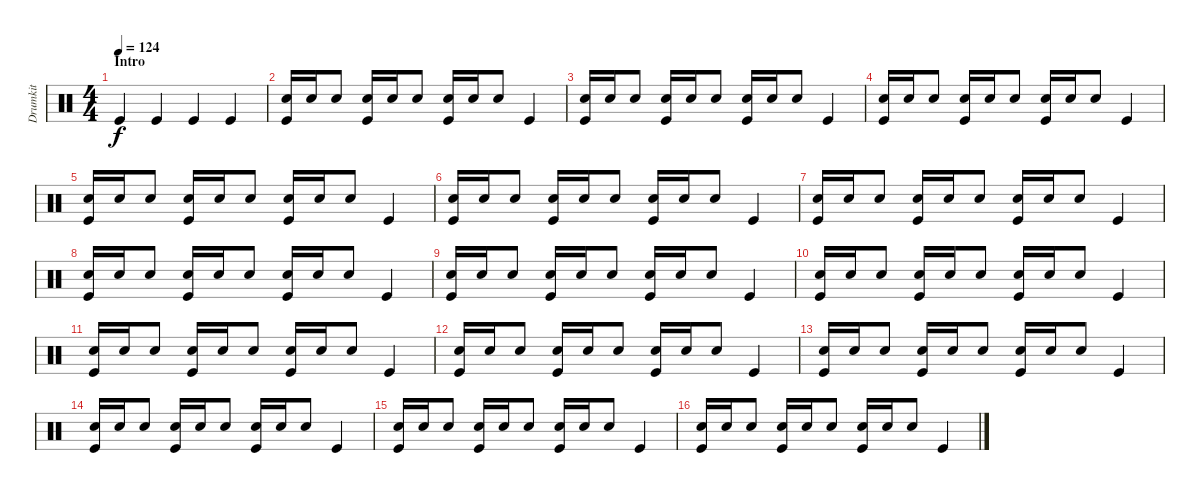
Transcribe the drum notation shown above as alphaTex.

\track ("Drumkit" "Drumkit") {instrument percussion}
\staff {score}
\articulation defaults
\ts (4 4)
\section ("" "Intro")
\tempo 124
\clef neutral
\ks c "Kick (hit)".4{dy f} "Kick (hit)".4 "Kick (hit)".4 "Kick (hit)".4
|
("Kick (hit)" "Snare (hit) 2").16 "Snare (hit) 2".16 "Snare (hit) 2".8 ("Kick (hit)" "Snare (hit) 2").16 "Snare (hit) 2".16 "Snare (hit) 2".8 ("Kick (hit)" "Snare (hit) 2").16 "Snare (hit) 2".16 "Snare (hit) 2".8 "Kick (hit)".4 |
("Kick (hit)" "Snare (hit) 2").16 "Snare (hit) 2".16 "Snare (hit) 2".8 ("Kick (hit)" "Snare (hit) 2").16 "Snare (hit) 2".16 "Snare (hit) 2".8 ("Kick (hit)" "Snare (hit) 2").16 "Snare (hit) 2".16 "Snare (hit) 2".8 "Kick (hit)".4 |
("Kick (hit)" "Snare (hit) 2").16 "Snare (hit) 2".16 "Snare (hit) 2".8 ("Kick (hit)" "Snare (hit) 2").16 "Snare (hit) 2".16 "Snare (hit) 2".8 ("Kick (hit)" "Snare (hit) 2").16 "Snare (hit) 2".16 "Snare (hit) 2".8 "Kick (hit)".4 |
("Kick (hit)" "Snare (hit) 2").16 "Snare (hit) 2".16 "Snare (hit) 2".8 ("Kick (hit)" "Snare (hit) 2").16 "Snare (hit) 2".16 "Snare (hit) 2".8 ("Kick (hit)" "Snare (hit) 2").16 "Snare (hit) 2".16 "Snare (hit) 2".8 "Kick (hit)".4 |
("Kick (hit)" "Snare (hit) 2").16 "Snare (hit) 2".16 "Snare (hit) 2".8 ("Kick (hit)" "Snare (hit) 2").16 "Snare (hit) 2".16 "Snare (hit) 2".8 ("Kick (hit)" "Snare (hit) 2").16 "Snare (hit) 2".16 "Snare (hit) 2".8 "Kick (hit)".4 |
("Kick (hit)" "Snare (hit) 2").16 "Snare (hit) 2".16 "Snare (hit) 2".8 ("Kick (hit)" "Snare (hit) 2").16 "Snare (hit) 2".16 "Snare (hit) 2".8 ("Kick (hit)" "Snare (hit) 2").16 "Snare (hit) 2".16 "Snare (hit) 2".8 "Kick (hit)".4 |
("Kick (hit)" "Snare (hit) 2").16 "Snare (hit) 2".16 "Snare (hit) 2".8 ("Kick (hit)" "Snare (hit) 2").16 "Snare (hit) 2".16 "Snare (hit) 2".8 ("Kick (hit)" "Snare (hit) 2").16 "Snare (hit) 2".16 "Snare (hit) 2".8 "Kick (hit)".4 |
("Kick (hit)" "Snare (hit) 2").16 "Snare (hit) 2".16 "Snare (hit) 2".8 ("Kick (hit)" "Snare (hit) 2").16 "Snare (hit) 2".16 "Snare (hit) 2".8 ("Kick (hit)" "Snare (hit) 2").16 "Snare (hit) 2".16 "Snare (hit) 2".8 "Kick (hit)".4 |
("Kick (hit)" "Snare (hit) 2").16 "Snare (hit) 2".16 "Snare (hit) 2".8 ("Kick (hit)" "Snare (hit) 2").16 "Snare (hit) 2".16 "Snare (hit) 2".8 ("Kick (hit)" "Snare (hit) 2").16 "Snare (hit) 2".16 "Snare (hit) 2".8 "Kick (hit)".4 |
("Kick (hit)" "Snare (hit) 2").16 "Snare (hit) 2".16 "Snare (hit) 2".8 ("Kick (hit)" "Snare (hit) 2").16 "Snare (hit) 2".16 "Snare (hit) 2".8 ("Kick (hit)" "Snare (hit) 2").16 "Snare (hit) 2".16 "Snare (hit) 2".8 "Kick (hit)".4 |
("Kick (hit)" "Snare (hit) 2").16 "Snare (hit) 2".16 "Snare (hit) 2".8 ("Kick (hit)" "Snare (hit) 2").16 "Snare (hit) 2".16 "Snare (hit) 2".8 ("Kick (hit)" "Snare (hit) 2").16 "Snare (hit) 2".16 "Snare (hit) 2".8 "Kick (hit)".4 |
("Kick (hit)" "Snare (hit) 2").16 "Snare (hit) 2".16 "Snare (hit) 2".8 ("Kick (hit)" "Snare (hit) 2").16 "Snare (hit) 2".16 "Snare (hit) 2".8 ("Kick (hit)" "Snare (hit) 2").16 "Snare (hit) 2".16 "Snare (hit) 2".8 "Kick (hit)".4 |
("Kick (hit)" "Snare (hit) 2").16 "Snare (hit) 2".16 "Snare (hit) 2".8 ("Kick (hit)" "Snare (hit) 2").16 "Snare (hit) 2".16 "Snare (hit) 2".8 ("Kick (hit)" "Snare (hit) 2").16 "Snare (hit) 2".16 "Snare (hit) 2".8 "Kick (hit)".4 |
("Kick (hit)" "Snare (hit) 2").16 "Snare (hit) 2".16 "Snare (hit) 2".8 ("Kick (hit)" "Snare (hit) 2").16 "Snare (hit) 2".16 "Snare (hit) 2".8 ("Kick (hit)" "Snare (hit) 2").16 "Snare (hit) 2".16 "Snare (hit) 2".8 "Kick (hit)".4 |
("Kick (hit)" "Snare (hit) 2").16 "Snare (hit) 2".16 "Snare (hit) 2".8 ("Kick (hit)" "Snare (hit) 2").16 "Snare (hit) 2".16 "Snare (hit) 2".8 ("Kick (hit)" "Snare (hit) 2").16 "Snare (hit) 2".16 "Snare (hit) 2".8 "Kick (hit)".4
